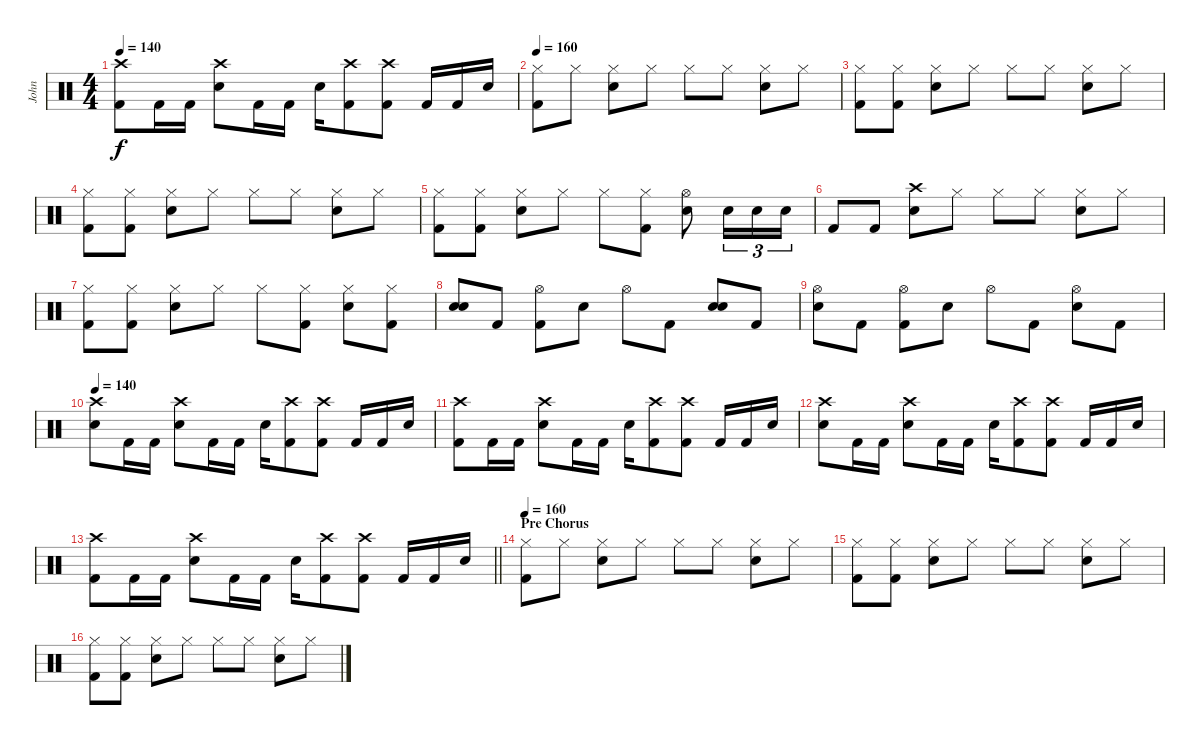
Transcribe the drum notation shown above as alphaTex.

\track ("John" "John") {instrument percussion}
\staff {score}
\articulation defaults
\ts (4 4)
\tempo 140
\clef neutral
\ks c
("Crash high (hit)" "Kick (hit) 2").8{dy f} "Kick (hit) 2".16 "Kick (hit) 2".16 ("Crash high (hit)" "Snare (hit) 2").8 "Kick (hit) 2".16 "Kick (hit) 2".16 "Snare (hit) 2".16 ("Crash high (hit)" "Kick (hit) 2").8 ("Crash high (hit)" "Kick (hit) 2").8 "Kick (hit) 2".16 "Kick (hit) 2".16 "Snare (hit) 2".16 |
\tempo 160
("Hi-Hat (closed)" "Kick (hit) 2").8 "Hi-Hat (closed)".8 ("Hi-Hat (closed)" "Snare (hit) 2").8 "Hi-Hat (closed)".8 "Hi-Hat (closed)".8 "Hi-Hat (closed)".8 ("Hi-Hat (closed)" "Snare (hit) 2").8 "Hi-Hat (closed)".8 |
("Hi-Hat (closed)" "Kick (hit) 2").8 ("Hi-Hat (closed)" "Kick (hit) 2").8 ("Hi-Hat (closed)" "Snare (hit) 2").8 "Hi-Hat (closed)".8 "Hi-Hat (closed)".8 "Hi-Hat (closed)".8 ("Hi-Hat (closed)" "Snare (hit) 2").8 "Hi-Hat (closed)".8 |
("Hi-Hat (closed)" "Kick (hit) 2").8 ("Hi-Hat (closed)" "Kick (hit) 2").8 ("Hi-Hat (closed)" "Snare (hit) 2").8 "Hi-Hat (closed)".8 "Hi-Hat (closed)".8 "Hi-Hat (closed)".8 ("Hi-Hat (closed)" "Snare (hit) 2").8 "Hi-Hat (closed)".8 |
("Hi-Hat (closed)" "Kick (hit) 2").8 ("Hi-Hat (closed)" "Kick (hit) 2").8 ("Hi-Hat (closed)" "Snare (hit) 2").8 "Hi-Hat (closed)".8 "Hi-Hat (closed)".8 ("Hi-Hat (closed)" "Kick (hit) 2").8 ("Hi-Hat (open)" "Snare (hit) 2").8 "Snare (hit) 2".16{tu (3 2)} "Snare (hit) 2".16{tu (3 2)} "Snare (hit) 2".16{tu (3 2)} |
"Kick (hit) 2".8 "Kick (hit) 2".8 ("Crash high (hit)" "Snare (hit) 2").8 "Hi-Hat (closed)".8 "Hi-Hat (closed)".8 "Hi-Hat (closed)".8 ("Hi-Hat (closed)" "Snare (hit) 2").8 "Hi-Hat (closed)".8 |
("Hi-Hat (closed)" "Kick (hit) 2").8 ("Hi-Hat (closed)" "Kick (hit) 2").8 ("Hi-Hat (closed)" "Snare (hit) 2").8 "Hi-Hat (closed)".8 "Hi-Hat (closed)".8 ("Hi-Hat (closed)" "Kick (hit) 2").8 ("Hi-Hat (closed)" "Snare (hit) 2").8 ("Hi-Hat (closed)" "Kick (hit) 2").8 |
("Snare (hit) 2" "Snare (hit) 2").8 "Kick (hit) 2".8 ("Hi-Hat (open)" "Kick (hit) 2").8 "Snare (hit) 2".8 "Hi-Hat (open)".8 "Kick (hit) 2".8 ("Snare (hit) 2" "Snare (hit) 2").8 "Kick (hit) 2".8 |
("Hi-Hat (open)" "Snare (hit) 2").8 "Kick (hit) 2".8 ("Hi-Hat (open)" "Kick (hit) 2").8 "Snare (hit) 2".8 "Hi-Hat (open)".8 "Kick (hit) 2".8 ("Hi-Hat (open)" "Snare (hit) 2").8 "Kick (hit) 2".8 |
\tempo 140
("Crash high (hit)" "Snare (hit) 2").8 "Kick (hit) 2".16 "Kick (hit) 2".16 ("Crash high (hit)" "Snare (hit) 2").8 "Kick (hit) 2".16 "Kick (hit) 2".16 "Snare (hit) 2".16 ("Crash high (hit)" "Kick (hit) 2").8 ("Crash high (hit)" "Kick (hit) 2").8 "Kick (hit) 2".16 "Kick (hit) 2".16 "Snare (hit) 2".16 |
("Crash high (hit)" "Kick (hit) 2").8 "Kick (hit) 2".16 "Kick (hit) 2".16 ("Crash high (hit)" "Snare (hit) 2").8 "Kick (hit) 2".16 "Kick (hit) 2".16 "Snare (hit) 2".16 ("Crash high (hit)" "Kick (hit) 2").8 ("Crash high (hit)" "Kick (hit) 2").8 "Kick (hit) 2".16 "Kick (hit) 2".16 "Snare (hit) 2".16 |
("Crash high (hit)" "Snare (hit) 2").8 "Kick (hit) 2".16 "Kick (hit) 2".16 ("Crash high (hit)" "Snare (hit) 2").8 "Kick (hit) 2".16 "Kick (hit) 2".16 "Snare (hit) 2".16 ("Crash high (hit)" "Kick (hit) 2").8 ("Crash high (hit)" "Kick (hit) 2").8 "Kick (hit) 2".16 "Kick (hit) 2".16 "Snare (hit) 2".16 |
\barLineRight lightlight
("Crash high (hit)" "Kick (hit) 2").8 "Kick (hit) 2".16 "Kick (hit) 2".16 ("Crash high (hit)" "Snare (hit) 2").8 "Kick (hit) 2".16 "Kick (hit) 2".16 "Snare (hit) 2".16 ("Crash high (hit)" "Kick (hit) 2").8 ("Crash high (hit)" "Kick (hit) 2").8 "Kick (hit) 2".16 "Kick (hit) 2".16 "Snare (hit) 2".16 |
\section ("" "Pre Chorus")
\tempo 160
("Hi-Hat (closed)" "Kick (hit) 2").8 "Hi-Hat (closed)".8 ("Hi-Hat (closed)" "Snare (hit) 2").8 "Hi-Hat (closed)".8 "Hi-Hat (closed)".8 "Hi-Hat (closed)".8 ("Hi-Hat (closed)" "Snare (hit) 2").8 "Hi-Hat (closed)".8 |
("Hi-Hat (closed)" "Kick (hit) 2").8 ("Hi-Hat (closed)" "Kick (hit) 2").8 ("Hi-Hat (closed)" "Snare (hit) 2").8 "Hi-Hat (closed)".8 "Hi-Hat (closed)".8 "Hi-Hat (closed)".8 ("Hi-Hat (closed)" "Snare (hit) 2").8 "Hi-Hat (closed)".8 |
("Hi-Hat (closed)" "Kick (hit) 2").8 ("Hi-Hat (closed)" "Kick (hit) 2").8 ("Hi-Hat (closed)" "Snare (hit) 2").8 "Hi-Hat (closed)".8 "Hi-Hat (closed)".8 "Hi-Hat (closed)".8 ("Hi-Hat (closed)" "Snare (hit) 2").8 "Hi-Hat (closed)".8
